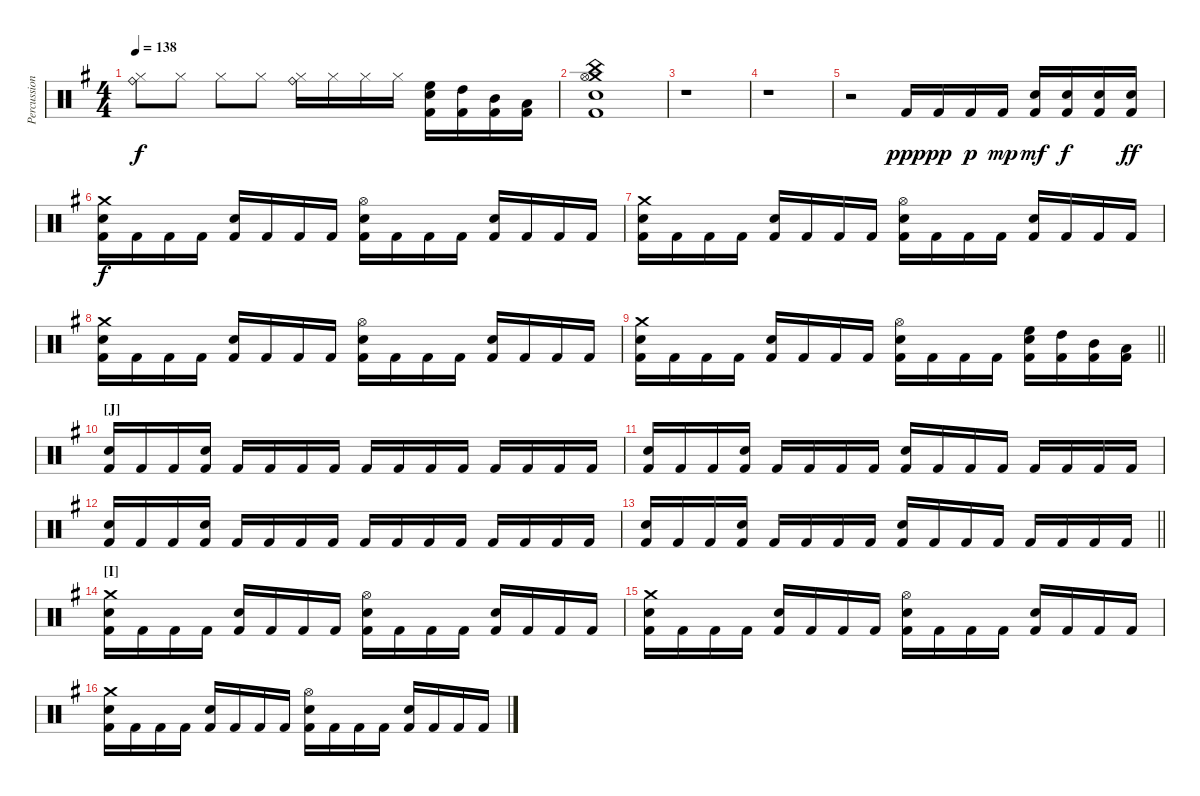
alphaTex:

\track ("Percussion" "Percussion") {instrument percussion}
\staff {score}
\articulation defaults
\ts (4 4)
\tempo 138
\clef neutral
\ks eminor
("Ride (bell)" "Hi-Hat (closed)").8{dy f} "Hi-Hat (closed)".8 "Hi-Hat (closed)".8 "Hi-Hat (closed)".8 ("Ride (bell)" "Hi-Hat (closed)").16 "Hi-Hat (closed)".16 "Hi-Hat (closed)".16 "Hi-Hat (closed)".16 ("High Floor Tom (hit)" "Snare (hit) 2" "Kick (hit) 2").16 ("High Tom (hit)" "Kick (hit) 2").16 ("Mid Tom (hit)" "Kick (hit) 2").16 ("Low Tom (hit)" "Kick (hit) 2").16 |
("Crash medium (hit)" "China (hit)" "Hi-Hat (open)" "Snare (hit) 2" "Kick (hit) 2").1 |
r.1 |
r.1 |
r.2 "Kick (hit) 2".16{dy ppp} "Kick (hit) 2".16{dy pp} "Kick (hit) 2".16{dy p} "Kick (hit) 2".16{dy mp} ("Snare (hit) 2" "Kick (hit) 2").16{dy mf} ("Snare (hit) 2" "Kick (hit) 2").16{dy f} ("Snare (hit) 2" "Kick (hit) 2").16 ("Snare (hit) 2" "Kick (hit) 2").16{dy ff} |
("Crash medium (hit)" "Snare (hit) 2" "Kick (hit) 2").16{dy f} "Kick (hit) 2".16 "Kick (hit) 2".16 "Kick (hit) 2".16 ("Snare (hit) 2" "Kick (hit) 2").16 "Kick (hit) 2".16 "Kick (hit) 2".16 "Kick (hit) 2".16 ("Hi-Hat (open)" "Snare (hit) 2" "Kick (hit) 2").16 "Kick (hit) 2".16 "Kick (hit) 2".16 "Kick (hit) 2".16 ("Snare (hit) 2" "Kick (hit) 2").16 "Kick (hit) 2".16 "Kick (hit) 2".16 "Kick (hit) 2".16 |
("Crash medium (hit)" "Snare (hit) 2" "Kick (hit) 2").16 "Kick (hit) 2".16 "Kick (hit) 2".16 "Kick (hit) 2".16 ("Snare (hit) 2" "Kick (hit) 2").16 "Kick (hit) 2".16 "Kick (hit) 2".16 "Kick (hit) 2".16 ("Hi-Hat (open)" "Snare (hit) 2" "Kick (hit) 2").16 "Kick (hit) 2".16 "Kick (hit) 2".16 "Kick (hit) 2".16 ("Snare (hit) 2" "Kick (hit) 2").16 "Kick (hit) 2".16 "Kick (hit) 2".16 "Kick (hit) 2".16 |
("Crash medium (hit)" "Snare (hit) 2" "Kick (hit) 2").16 "Kick (hit) 2".16 "Kick (hit) 2".16 "Kick (hit) 2".16 ("Snare (hit) 2" "Kick (hit) 2").16 "Kick (hit) 2".16 "Kick (hit) 2".16 "Kick (hit) 2".16 ("Hi-Hat (open)" "Snare (hit) 2" "Kick (hit) 2").16 "Kick (hit) 2".16 "Kick (hit) 2".16 "Kick (hit) 2".16 ("Snare (hit) 2" "Kick (hit) 2").16 "Kick (hit) 2".16 "Kick (hit) 2".16 "Kick (hit) 2".16 |
\barLineRight lightlight
("Crash medium (hit)" "Snare (hit) 2" "Kick (hit) 2").16 "Kick (hit) 2".16 "Kick (hit) 2".16 "Kick (hit) 2".16 ("Snare (hit) 2" "Kick (hit) 2").16 "Kick (hit) 2".16 "Kick (hit) 2".16 "Kick (hit) 2".16 ("Hi-Hat (open)" "Snare (hit) 2" "Kick (hit) 2").16 "Kick (hit) 2".16 "Kick (hit) 2".16 "Kick (hit) 2".16 ("High Floor Tom (hit)" "Snare (hit) 2" "Kick (hit) 2").16 ("High Tom (hit)" "Kick (hit) 2").16 ("Mid Tom (hit)" "Kick (hit) 2").16 ("Low Tom (hit)" "Kick (hit) 2").16 |
\section ("" "[J]")
("Snare (hit) 2" "Kick (hit) 2").16 "Kick (hit) 2".16 "Kick (hit) 2".16 ("Snare (hit) 2" "Kick (hit) 2").16 "Kick (hit) 2".16 "Kick (hit) 2".16 "Kick (hit) 2".16 "Kick (hit) 2".16 "Kick (hit) 2".16 "Kick (hit) 2".16 "Kick (hit) 2".16 "Kick (hit) 2".16 "Kick (hit) 2".16 "Kick (hit) 2".16 "Kick (hit) 2".16 "Kick (hit) 2".16 |
("Snare (hit) 2" "Kick (hit) 2").16 "Kick (hit) 2".16 "Kick (hit) 2".16 ("Snare (hit) 2" "Kick (hit) 2").16 "Kick (hit) 2".16 "Kick (hit) 2".16 "Kick (hit) 2".16 "Kick (hit) 2".16 ("Snare (hit) 2" "Kick (hit) 2").16 "Kick (hit) 2".16 "Kick (hit) 2".16 "Kick (hit) 2".16 "Kick (hit) 2".16 "Kick (hit) 2".16 "Kick (hit) 2".16 "Kick (hit) 2".16 |
("Snare (hit) 2" "Kick (hit) 2").16 "Kick (hit) 2".16 "Kick (hit) 2".16 ("Snare (hit) 2" "Kick (hit) 2").16 "Kick (hit) 2".16 "Kick (hit) 2".16 "Kick (hit) 2".16 "Kick (hit) 2".16 "Kick (hit) 2".16 "Kick (hit) 2".16 "Kick (hit) 2".16 "Kick (hit) 2".16 "Kick (hit) 2".16 "Kick (hit) 2".16 "Kick (hit) 2".16 "Kick (hit) 2".16 |
\barLineRight lightlight
("Snare (hit) 2" "Kick (hit) 2").16 "Kick (hit) 2".16 "Kick (hit) 2".16 ("Snare (hit) 2" "Kick (hit) 2").16 "Kick (hit) 2".16 "Kick (hit) 2".16 "Kick (hit) 2".16 "Kick (hit) 2".16 ("Snare (hit) 2" "Kick (hit) 2").16 "Kick (hit) 2".16 "Kick (hit) 2".16 "Kick (hit) 2".16 "Kick (hit) 2".16 "Kick (hit) 2".16 "Kick (hit) 2".16 "Kick (hit) 2".16 |
\section ("" "[I]")
("Crash medium (hit)" "Snare (hit) 2" "Kick (hit) 2").16 "Kick (hit) 2".16 "Kick (hit) 2".16 "Kick (hit) 2".16 ("Snare (hit) 2" "Kick (hit) 2").16 "Kick (hit) 2".16 "Kick (hit) 2".16 "Kick (hit) 2".16 ("Hi-Hat (open)" "Snare (hit) 2" "Kick (hit) 2").16 "Kick (hit) 2".16 "Kick (hit) 2".16 "Kick (hit) 2".16 ("Snare (hit) 2" "Kick (hit) 2").16 "Kick (hit) 2".16 "Kick (hit) 2".16 "Kick (hit) 2".16 |
("Crash medium (hit)" "Snare (hit) 2" "Kick (hit) 2").16 "Kick (hit) 2".16 "Kick (hit) 2".16 "Kick (hit) 2".16 ("Snare (hit) 2" "Kick (hit) 2").16 "Kick (hit) 2".16 "Kick (hit) 2".16 "Kick (hit) 2".16 ("Hi-Hat (open)" "Snare (hit) 2" "Kick (hit) 2").16 "Kick (hit) 2".16 "Kick (hit) 2".16 "Kick (hit) 2".16 ("Snare (hit) 2" "Kick (hit) 2").16 "Kick (hit) 2".16 "Kick (hit) 2".16 "Kick (hit) 2".16 |
("Crash medium (hit)" "Snare (hit) 2" "Kick (hit) 2").16 "Kick (hit) 2".16 "Kick (hit) 2".16 "Kick (hit) 2".16 ("Snare (hit) 2" "Kick (hit) 2").16 "Kick (hit) 2".16 "Kick (hit) 2".16 "Kick (hit) 2".16 ("Hi-Hat (open)" "Snare (hit) 2" "Kick (hit) 2").16 "Kick (hit) 2".16 "Kick (hit) 2".16 "Kick (hit) 2".16 ("Snare (hit) 2" "Kick (hit) 2").16 "Kick (hit) 2".16 "Kick (hit) 2".16 "Kick (hit) 2".16
